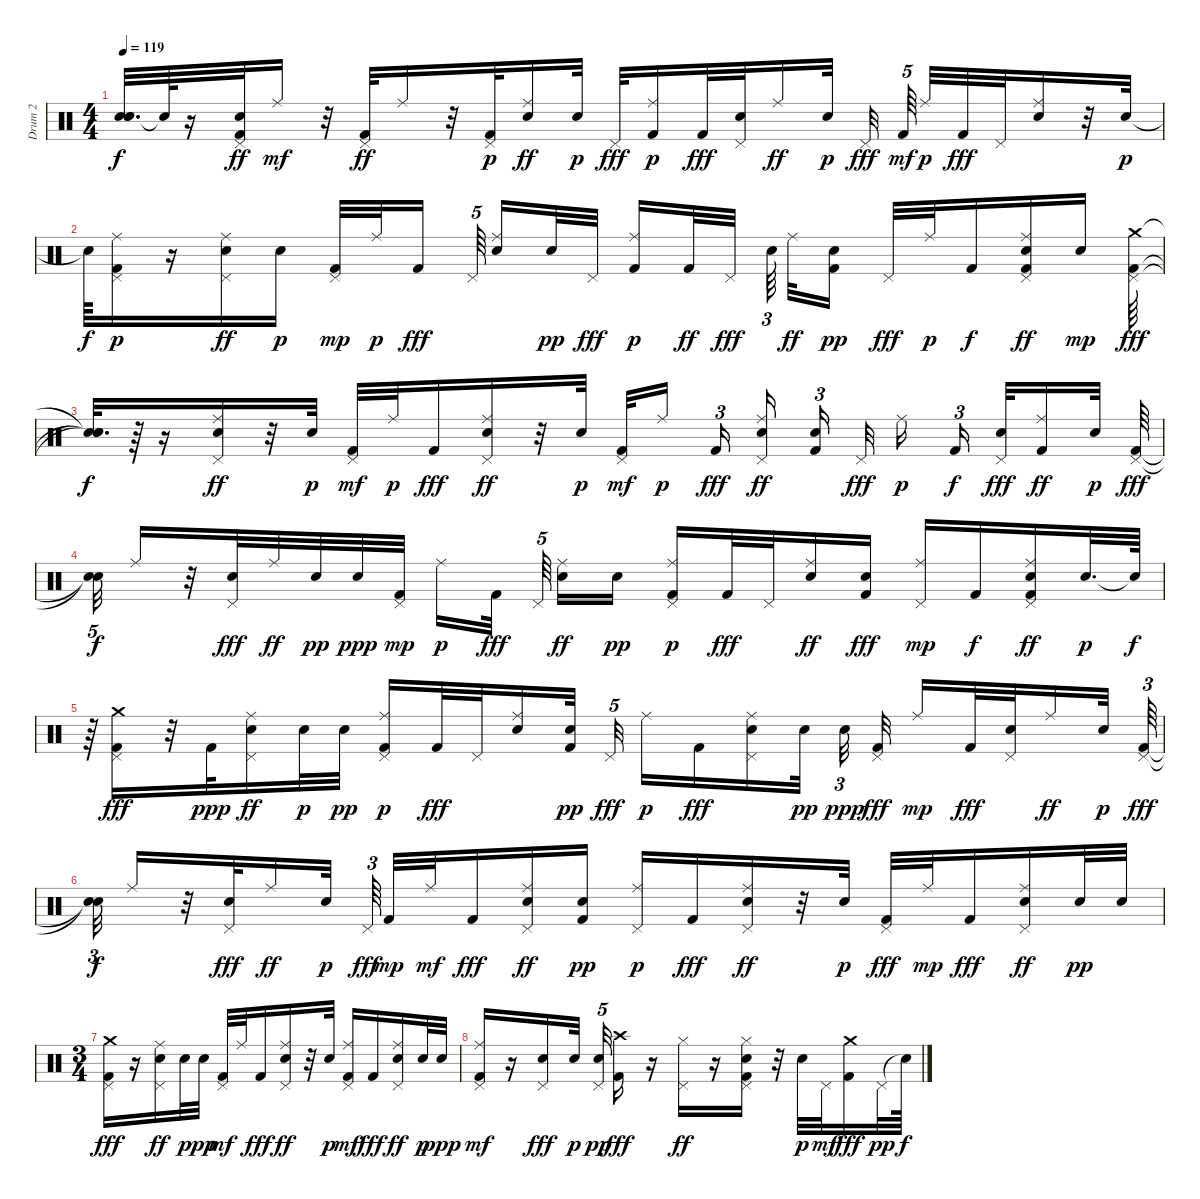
\track ("Drum 2                          " "Drum 2    ") {instrument percussion}
\staff {score}
\articulation defaults
\ts (4 4)
\tempo 119
\clef neutral
\ks c
("Snare (hit)"{t} "Snare (hit)"{t} "Snare (hit)"{t}).32{d dy f} "Snare (hit)"{t}.64 r.16 ("Snare (hit) 2" "Kick (hit) 2" "Pedal Hi-Hat (hit)").32{dy ff} "Ride (middle)".16{dy mf} r.32 ("Kick (hit) 2" "Pedal Hi-Hat (hit)").32{dy ff} "Ride (middle)".16 r.32 ("Pedal Hi-Hat (hit)" "Kick (hit) 2").32{dy p} ("Snare (hit) 2" "Ride (middle)").16{dy ff} "Snare (hit) 2".32{dy p} "Pedal Hi-Hat (hit)".32{dy fff} ("Kick (hit) 2" "Ride (middle)").16{dy p} "Kick (hit) 2".32{dy fff} ("Pedal Hi-Hat (hit)" "Snare (hit) 2").32 "Ride (middle)".16{dy ff} "Snare (hit) 2".32{dy p} "Pedal Hi-Hat (hit)".32{dy fff beam splitsecondary} "Kick (hit) 2".64{tu (5 4) dy mf beam splitsecondary} "Ride (middle)".32{dy p} "Kick (hit) 2".32{dy fff} "Pedal Hi-Hat (hit)".32 ("Snare (hit) 2" "Ride (middle)").16 r.32 "Snare (hit) 2".32{dy p} |
"Snare (hit)"{t}.64{dy f} ("Pedal Hi-Hat (hit)" "Kick (hit) 2" "Ride (middle)").16{dy p} r.16 ("Pedal Hi-Hat (hit)" "Snare (hit) 2" "Ride (middle)").16{dy ff} "Snare (hit) 2".16{dy p} ("Pedal Hi-Hat (hit)" "Kick (hit) 2").32{dy mp} "Ride (middle)".32{dy p} "Kick (hit) 2".16{dy fff beam splitsecondary} "Pedal Hi-Hat (hit)".64{tu (5 4) beam splitsecondary} ("Snare (hit) 2" "Ride (middle)").16 "Snare (hit) 2".32{dy pp} "Pedal Hi-Hat (hit)".32{dy fff} ("Kick (hit) 2" "Ride (middle)").16{dy p} "Kick (hit) 2".32{dy ff} "Pedal Hi-Hat (hit)".32{dy fff beam splitsecondary} "Snare (hit) 2".64{tu (3 2) beam splitsecondary} "Ride (middle)".32{dy ff} ("Kick (hit) 2" "Snare (hit) 2").16{dy pp} "Pedal Hi-Hat (hit)".32{dy fff} "Ride (middle)".32{dy p} "Kick (hit) 2".16{dy f} ("Pedal Hi-Hat (hit)" "Snare (hit) 2" "Kick (hit) 2" "Ride (middle)").16{dy ff} "Snare (hit) 2".16{dy mp} ("Pedal Hi-Hat (hit)" "Kick (hit) 2" "Crash medium (hit)").64{dy fff} |
("Snare (hit)"{t} "Snare (hit)"{t} "Snare (hit)"{t}).32{d dy f} r.64 r.16 ("Pedal Hi-Hat (hit)" "Electric Snare (hit)" "Ride (middle)").16{dy ff} r.32 "Snare (hit) 2".32{dy p} ("Pedal Hi-Hat (hit)" "Kick (hit) 2").32{dy mf} "Ride (middle)".32{dy p} "Kick (hit) 2".16{dy fff} ("Pedal Hi-Hat (hit)" "Snare (hit) 2" "Ride (middle)").16{dy ff} r.32 "Snare (hit) 2".32{dy p} ("Pedal Hi-Hat (hit)" "Kick (hit) 2").32{dy mf} "Ride (middle)".16{dy p beam splitsecondary} "Kick (hit) 2".16{tu (3 2) dy fff beam splitsecondary} ("Pedal Hi-Hat (hit)" "Electric Snare (hit)" "Ride (middle)").16{dy ff beam splitsecondary} ("Snare (hit) 2" "Kick (hit) 2").16{tu (3 2)} "Pedal Hi-Hat (hit)".32{dy fff} "Ride (middle)".16{dy p beam splitsecondary} "Kick (hit) 2".16{tu (3 2) dy f beam splitsecondary} ("Pedal Hi-Hat (hit)" "Snare (hit) 2").32{dy fff} ("Kick (hit) 2" "Ride (middle)").16{dy ff} "Snare (hit) 2".32{dy p} ("Pedal Hi-Hat (hit)" "Kick (hit) 2").64{dy fff} |
("Snare (hit)"{t} "Snare (hit)"{t}).32{tu (5 4) dy f} "Ride (middle)".16 r.32 ("Pedal Hi-Hat (hit)" "Electric Snare (hit)").32{dy fff} "Ride (middle)".32{dy ff} "Snare (hit) 2".32{dy pp} "Snare (hit) 2".32{dy ppp} ("Pedal Hi-Hat (hit)" "Kick (hit) 2").32{dy mp} "Ride (middle)".16{dy p} "Kick (hit) 2".32{dy fff beam splitsecondary} "Pedal Hi-Hat (hit)".64{tu (5 4) beam splitsecondary} ("Electric Snare (hit)" "Ride (middle)").16{dy ff} "Snare (hit) 2".16{dy pp} ("Pedal Hi-Hat (hit)" "Kick (hit) 2" "Ride (middle)").16{dy p} "Kick (hit) 2".32{dy fff} "Pedal Hi-Hat (hit)".32 ("Electric Snare (hit)" "Ride (middle)").16{dy ff} ("Snare (hit) 2" "Kick (hit) 2").16{dy fff} ("Pedal Hi-Hat (hit)" "Ride (middle)").16{dy mp} "Kick (hit) 2".16{dy f} ("Pedal Hi-Hat (hit)" "Snare (hit) 2" "Kick (hit) 2" "Ride (middle)").16{dy ff} "Snare (hit) 2".32{d dy p} "Snare (hit)"{t}.64{dy f} |
r.64 ("Pedal Hi-Hat (hit)" "Kick (hit) 2" "Crash medium (hit)").16{dy fff} r.32 "Kick (hit) 2".32{dy ppp} ("Pedal Hi-Hat (hit)" "Snare (hit) 2" "Ride (middle)").16{dy ff} "Snare (hit) 2".32{dy p} "Snare (hit) 2".32{dy pp} ("Pedal Hi-Hat (hit)" "Kick (hit) 2" "Ride (middle)").16{dy p} "Kick (hit) 2".32{dy fff} "Pedal Hi-Hat (hit)".32 ("Electric Snare (hit)" "Ride (middle)").16 ("Kick (hit) 2" "Snare (hit) 2").32{dy pp} "Pedal Hi-Hat (hit)".32{tu (5 4) dy fff} "Ride (middle)".16{dy p} "Kick (hit) 2".16{dy fff} ("Pedal Hi-Hat (hit)" "Snare (hit) 2" "Ride (middle)").16 "Snare (hit) 2".32{dy pp beam splitsecondary} "Snare (hit) 2".32{tu (3 2) dy ppp} ("Pedal Hi-Hat (hit)" "Kick (hit) 2").32{dy fff} "Ride (middle)".16{dy mp} "Kick (hit) 2".32{dy fff} ("Pedal Hi-Hat (hit)" "Electric Snare (hit)").32 "Ride (middle)".16{dy ff} "Snare (hit) 2".32{dy p} ("Pedal Hi-Hat (hit)" "Kick (hit) 2").64{tu (3 2) dy fff} |
("Snare (hit)"{t} "Snare (hit)"{t}).32{tu (3 2) dy f} "Ride (middle)".16 r.32 ("Pedal Hi-Hat (hit)" "Snare (hit) 2").32{dy fff} "Ride (middle)".16{dy ff} "Snare (hit) 2".32{dy p} "Pedal Hi-Hat (hit)".64{tu (3 2) dy fff} "Kick (hit) 2".32{dy mp} "Ride (middle)".32{dy mf} "Kick (hit) 2".16{dy fff} ("Pedal Hi-Hat (hit)" "Electric Snare (hit)" "Ride (middle)").16{dy ff} ("Kick (hit) 2" "Snare (hit) 2").16{dy pp} ("Pedal Hi-Hat (hit)" "Ride (middle)").16{dy p} "Kick (hit) 2".16{dy fff} ("Pedal Hi-Hat (hit)" "Electric Snare (hit)" "Ride (middle)").16{dy ff} r.32 "Snare (hit) 2".32{dy p} ("Pedal Hi-Hat (hit)" "Kick (hit) 2").32{dy fff} "Ride (middle)".32{dy mp} "Kick (hit) 2".16{dy fff} ("Pedal Hi-Hat (hit)" "Electric Snare (hit)" "Ride (middle)").16{dy ff} "Snare (hit) 2".32{dy pp} "Snare (hit) 2".32 |
\ts (3 4)
("Pedal Hi-Hat (hit)" "Kick (hit) 2" "Crash medium (hit)").16{dy fff} r.16 ("Pedal Hi-Hat (hit)" "Snare (hit) 2" "Ride (middle)").16{dy ff} "Snare (hit) 2".32{dy p} "Snare (hit) 2".32{dy pp} ("Pedal Hi-Hat (hit)" "Kick (hit) 2").32{dy mf} "Ride (middle)".32 "Kick (hit) 2".16{dy fff} ("Pedal Hi-Hat (hit)" "Snare (hit) 2" "Ride (middle)").16{dy ff} r.32 "Snare (hit) 2".32{dy p} ("Pedal Hi-Hat (hit)" "Kick (hit) 2" "Ride (middle)").16{dy mf} "Kick (hit) 2".16{dy fff} ("Pedal Hi-Hat (hit)" "Electric Snare (hit)" "Ride (middle)").16{dy ff} "Snare (hit) 2".32{dy p} "Snare (hit) 2".32{dy ppp} |
("Pedal Hi-Hat (hit)" "Kick (hit) 2" "Ride (middle)").16{dy mf} r.16 ("Snare (hit) 2" "Pedal Hi-Hat (hit)").16{dy fff} "Snare (hit) 2".32{dy p beam splitsecondary} ("Snare (hit) 2" "Pedal Hi-Hat (hit)").32{tu (5 4) dy pp} ("Kick (hit) 2" "Crash high (hit)").16{dy fff} r.16 ("Pedal Hi-Hat (hit)" "Hi-Hat (closed)").16{dy ff} r.16 ("Pedal Hi-Hat (hit)" "Kick (hit) 2" "Electric Snare (hit)" "Hi-Hat (closed)").16 r.32 "Snare (hit) 2".32{dy p} "Pedal Hi-Hat (hit)".32{dy mf} ("Crash medium (hit)" "Kick (hit) 2").16{dy fff} "Pedal Hi-Hat (hit)".32{dy pp} "Snare (hit)"{t}.64{dy f}
